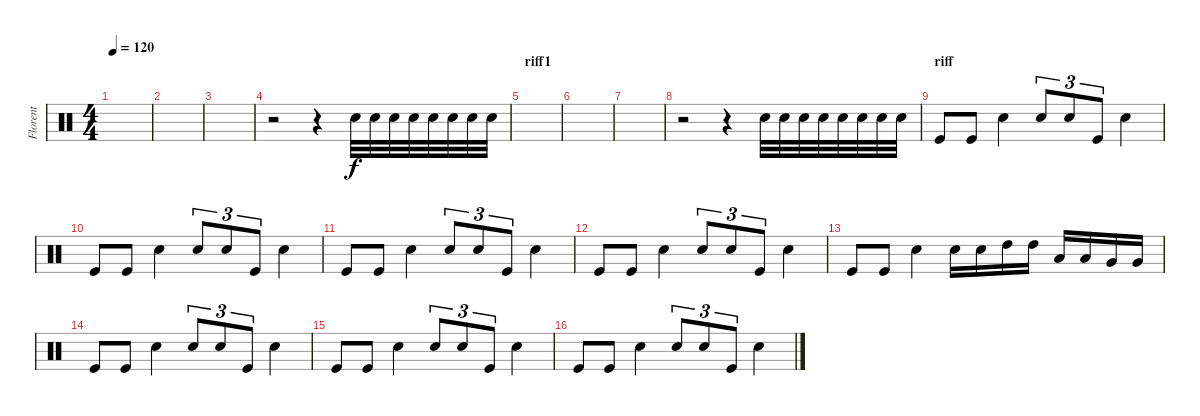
\track ("Florent" "Florent") {instrument percussion}
\staff {score}
\articulation defaults
\ts (4 4)
\tempo 120
\clef neutral
\ks c
|
|
|
r.2 r.4 "Snare (hit) 2".32 "Snare (hit) 2".32 "Snare (hit) 2".32 "Snare (hit) 2".32 "Snare (hit) 2".32 "Snare (hit) 2".32 "Snare (hit) 2".32 "Snare (hit) 2".32 |
\section ("" "riff1")
|
|
|
r.2 r.4 "Snare (hit) 2".32 "Snare (hit) 2".32 "Snare (hit) 2".32 "Snare (hit) 2".32 "Snare (hit) 2".32 "Snare (hit) 2".32 "Snare (hit) 2".32 "Snare (hit) 2".32 |
\section ("" "riff")
"Kick (hit)".8 "Kick (hit)".8 "Snare (hit) 2".4 "Snare (hit) 2".8{tu (3 2)} "Snare (hit) 2".8{tu (3 2)} "Kick (hit)".8{tu (3 2)} "Snare (hit) 2".4 |
"Kick (hit)".8 "Kick (hit)".8 "Snare (hit) 2".4 "Snare (hit) 2".8{tu (3 2)} "Snare (hit) 2".8{tu (3 2)} "Kick (hit)".8{tu (3 2)} "Snare (hit) 2".4 |
"Kick (hit)".8 "Kick (hit)".8 "Snare (hit) 2".4 "Snare (hit) 2".8{tu (3 2)} "Snare (hit) 2".8{tu (3 2)} "Kick (hit)".8{tu (3 2)} "Snare (hit) 2".4 |
"Kick (hit)".8 "Kick (hit)".8 "Snare (hit) 2".4 "Snare (hit) 2".8{tu (3 2)} "Snare (hit) 2".8{tu (3 2)} "Kick (hit)".8{tu (3 2)} "Snare (hit) 2".4 |
"Kick (hit)".8 "Kick (hit)".8 "Snare (hit) 2".4 "Snare (hit) 2".16 "Snare (hit) 2".16 "High Tom (hit)".16 "High Tom (hit)".16 "Low Tom (hit)".16 "Low Tom (hit)".16 "Very Low Tom (hit)".16 "Very Low Tom (hit)".16 |
"Kick (hit)".8 "Kick (hit)".8 "Snare (hit) 2".4 "Snare (hit) 2".8{tu (3 2)} "Snare (hit) 2".8{tu (3 2)} "Kick (hit)".8{tu (3 2)} "Snare (hit) 2".4 |
"Kick (hit)".8 "Kick (hit)".8 "Snare (hit) 2".4 "Snare (hit) 2".8{tu (3 2)} "Snare (hit) 2".8{tu (3 2)} "Kick (hit)".8{tu (3 2)} "Snare (hit) 2".4 |
"Kick (hit)".8 "Kick (hit)".8 "Snare (hit) 2".4 "Snare (hit) 2".8{tu (3 2)} "Snare (hit) 2".8{tu (3 2)} "Kick (hit)".8{tu (3 2)} "Snare (hit) 2".4
